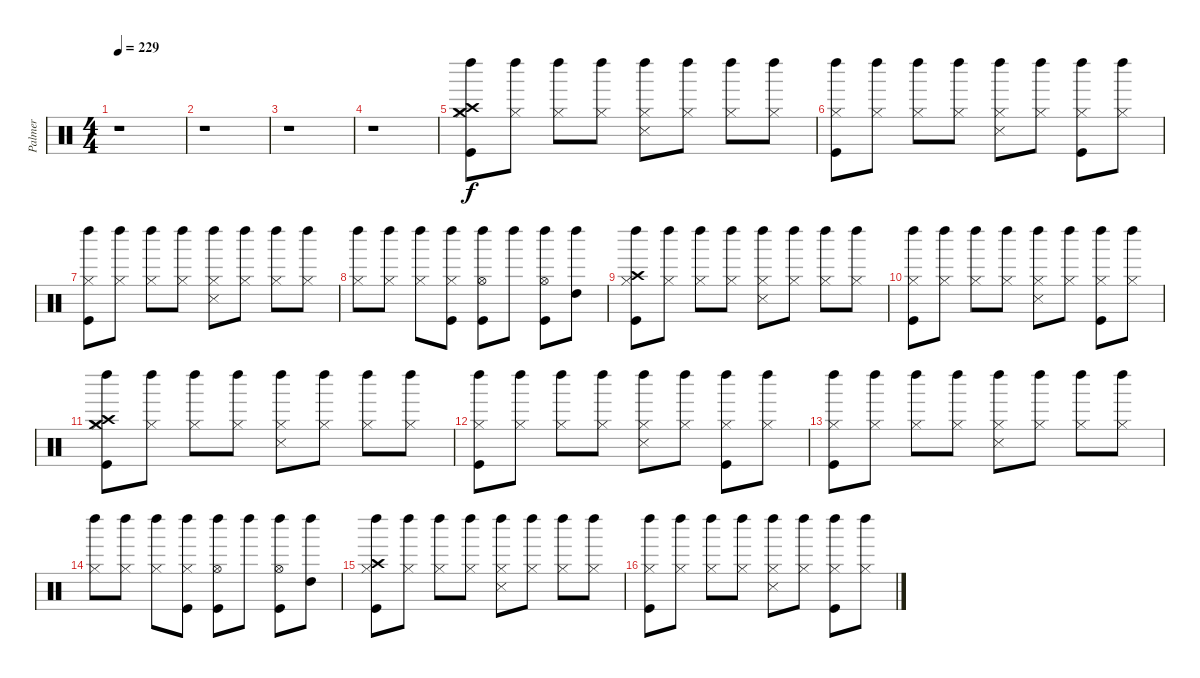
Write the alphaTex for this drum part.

\track ("Palmer" "Palmer") {instrument percussion}
\staff {score}
\articulation defaults
\ts (4 4)
\tempo 229
\clef neutral
\ks c
r.1{dy f} |
r.1 |
r.1 |
r.1 |
("Crash medium (hit)" "Kick (hit)" "Hi-Hat (closed)" "Crash high (hit)" "Left Maraca (hit)").8 ("Hi-Hat (closed)" "Left Maraca (hit)").8 ("Hi-Hat (closed)" "Left Maraca (hit)").8 ("Hi-Hat (closed)" "Left Maraca (hit)").8 ("Hi-Hat (closed)" "Snare (side stick) 3" "Left Maraca (hit)").8 ("Hi-Hat (closed)" "Left Maraca (hit)").8 ("Hi-Hat (closed)" "Left Maraca (hit)").8 ("Hi-Hat (closed)" "Left Maraca (hit)").8 |
("Kick (hit)" "Hi-Hat (closed)" "Left Maraca (hit)").8 ("Hi-Hat (closed)" "Left Maraca (hit)").8 ("Hi-Hat (closed)" "Left Maraca (hit)").8 ("Hi-Hat (closed)" "Left Maraca (hit)").8 ("Hi-Hat (closed)" "Snare (side stick) 3" "Left Maraca (hit)").8 ("Hi-Hat (closed)" "Left Maraca (hit)").8 ("Kick (hit)" "Hi-Hat (closed)" "Left Maraca (hit)").8 ("Hi-Hat (closed)" "Left Maraca (hit)").8 |
("Kick (hit)" "Hi-Hat (closed)" "Left Maraca (hit)").8 ("Hi-Hat (closed)" "Left Maraca (hit)").8 ("Hi-Hat (closed)" "Left Maraca (hit)").8 ("Hi-Hat (closed)" "Left Maraca (hit)").8 ("Hi-Hat (closed)" "Snare (side stick) 3" "Left Maraca (hit)").8 ("Hi-Hat (closed)" "Left Maraca (hit)").8 ("Hi-Hat (closed)" "Left Maraca (hit)").8 ("Hi-Hat (closed)" "Left Maraca (hit)").8 |
("Hi-Hat (closed)" "Left Maraca (hit)").8 ("Hi-Hat (closed)" "Left Maraca (hit)").8 ("Hi-Hat (closed)" "Left Maraca (hit)").8 ("Kick (hit)" "Hi-Hat (closed)" "Left Maraca (hit)").8 ("Kick (hit)" "Hi-Hat (open)" "Left Maraca (hit)").8 "Left Maraca (hit)".8 ("Kick (hit)" "Hi-Hat (open)" "Left Maraca (hit)").8 ("High Tom (hit)" "Left Maraca (hit)").8 |
("Kick (hit)" "Hi-Hat (closed)" "Crash high (hit)" "Left Maraca (hit)").8 ("Hi-Hat (closed)" "Left Maraca (hit)").8 ("Hi-Hat (closed)" "Left Maraca (hit)").8 ("Hi-Hat (closed)" "Left Maraca (hit)").8 ("Hi-Hat (closed)" "Snare (side stick) 3" "Left Maraca (hit)").8 ("Hi-Hat (closed)" "Left Maraca (hit)").8 ("Hi-Hat (closed)" "Left Maraca (hit)").8 ("Hi-Hat (closed)" "Left Maraca (hit)").8 |
("Kick (hit)" "Hi-Hat (closed)" "Left Maraca (hit)").8 ("Hi-Hat (closed)" "Left Maraca (hit)").8 ("Hi-Hat (closed)" "Left Maraca (hit)").8 ("Hi-Hat (closed)" "Left Maraca (hit)").8 ("Hi-Hat (closed)" "Snare (side stick) 3" "Left Maraca (hit)").8 ("Hi-Hat (closed)" "Left Maraca (hit)").8 ("Kick (hit)" "Hi-Hat (closed)" "Left Maraca (hit)").8 ("Hi-Hat (closed)" "Left Maraca (hit)").8 |
("Crash medium (hit)" "Kick (hit)" "Hi-Hat (closed)" "Crash high (hit)" "Left Maraca (hit)").8 ("Hi-Hat (closed)" "Left Maraca (hit)").8 ("Hi-Hat (closed)" "Left Maraca (hit)").8 ("Hi-Hat (closed)" "Left Maraca (hit)").8 ("Hi-Hat (closed)" "Snare (side stick) 3" "Left Maraca (hit)").8 ("Hi-Hat (closed)" "Left Maraca (hit)").8 ("Hi-Hat (closed)" "Left Maraca (hit)").8 ("Hi-Hat (closed)" "Left Maraca (hit)").8 |
("Kick (hit)" "Hi-Hat (closed)" "Left Maraca (hit)").8 ("Hi-Hat (closed)" "Left Maraca (hit)").8 ("Hi-Hat (closed)" "Left Maraca (hit)").8 ("Hi-Hat (closed)" "Left Maraca (hit)").8 ("Hi-Hat (closed)" "Snare (side stick) 3" "Left Maraca (hit)").8 ("Hi-Hat (closed)" "Left Maraca (hit)").8 ("Kick (hit)" "Hi-Hat (closed)" "Left Maraca (hit)").8 ("Hi-Hat (closed)" "Left Maraca (hit)").8 |
("Kick (hit)" "Hi-Hat (closed)" "Left Maraca (hit)").8 ("Hi-Hat (closed)" "Left Maraca (hit)").8 ("Hi-Hat (closed)" "Left Maraca (hit)").8 ("Hi-Hat (closed)" "Left Maraca (hit)").8 ("Hi-Hat (closed)" "Snare (side stick) 3" "Left Maraca (hit)").8 ("Hi-Hat (closed)" "Left Maraca (hit)").8 ("Hi-Hat (closed)" "Left Maraca (hit)").8 ("Hi-Hat (closed)" "Left Maraca (hit)").8 |
("Hi-Hat (closed)" "Left Maraca (hit)").8 ("Hi-Hat (closed)" "Left Maraca (hit)").8 ("Hi-Hat (closed)" "Left Maraca (hit)").8 ("Kick (hit)" "Hi-Hat (closed)" "Left Maraca (hit)").8 ("Kick (hit)" "Hi-Hat (open)" "Left Maraca (hit)").8 "Left Maraca (hit)".8 ("Kick (hit)" "Hi-Hat (open)" "Left Maraca (hit)").8 ("High Tom (hit)" "Left Maraca (hit)").8 |
("Kick (hit)" "Hi-Hat (closed)" "Crash high (hit)" "Left Maraca (hit)").8 ("Hi-Hat (closed)" "Left Maraca (hit)").8 ("Hi-Hat (closed)" "Left Maraca (hit)").8 ("Hi-Hat (closed)" "Left Maraca (hit)").8 ("Hi-Hat (closed)" "Snare (side stick) 3" "Left Maraca (hit)").8 ("Hi-Hat (closed)" "Left Maraca (hit)").8 ("Hi-Hat (closed)" "Left Maraca (hit)").8 ("Hi-Hat (closed)" "Left Maraca (hit)").8 |
("Kick (hit)" "Hi-Hat (closed)" "Left Maraca (hit)").8 ("Hi-Hat (closed)" "Left Maraca (hit)").8 ("Hi-Hat (closed)" "Left Maraca (hit)").8 ("Hi-Hat (closed)" "Left Maraca (hit)").8 ("Hi-Hat (closed)" "Snare (side stick) 3" "Left Maraca (hit)").8 ("Hi-Hat (closed)" "Left Maraca (hit)").8 ("Kick (hit)" "Hi-Hat (closed)" "Left Maraca (hit)").8 ("Hi-Hat (closed)" "Left Maraca (hit)").8
